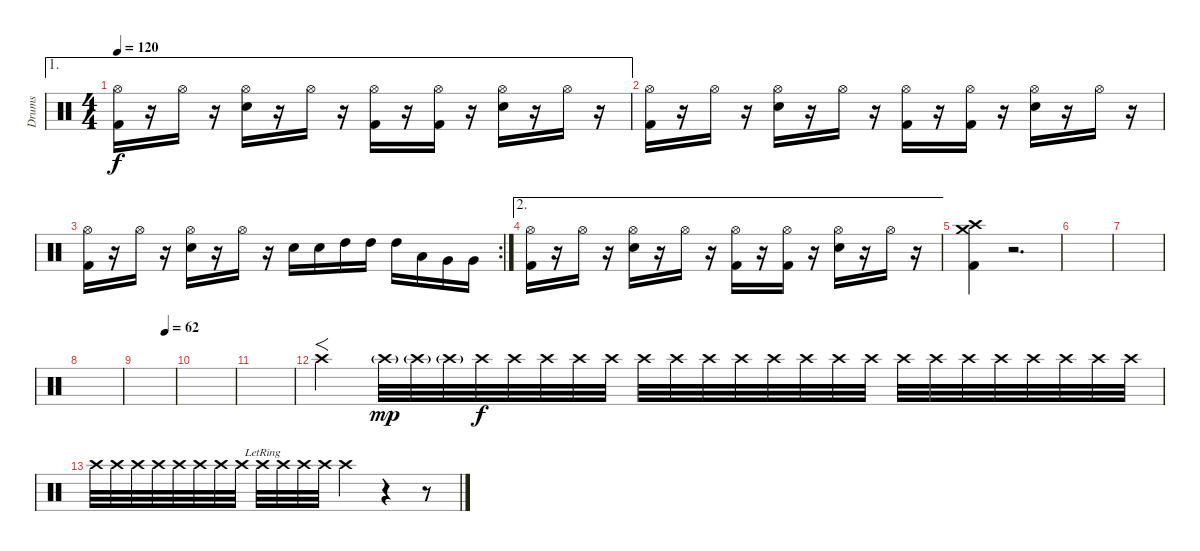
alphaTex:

\track ("Drums" "Drums") {instrument percussion}
\staff {score}
\articulation defaults
\ae 1
\ts (4 4)
\tempo 120
\clef neutral
\ks c
("Kick (hit) 2" "Hi-Hat (open)").16{dy f} r.16 "Hi-Hat (open)".16 r.16 ("Electric Snare (hit)" "Hi-Hat (open)").16 r.16 "Hi-Hat (open)".16 r.16 ("Kick (hit) 2" "Hi-Hat (open)").16 r.16 ("Kick (hit) 2" "Hi-Hat (open)").16 r.16 ("Electric Snare (hit)" "Hi-Hat (open)").16 r.16 "Hi-Hat (open)".16 r.16 |
("Kick (hit) 2" "Hi-Hat (open)").16 r.16 "Hi-Hat (open)".16 r.16 ("Electric Snare (hit)" "Hi-Hat (open)").16 r.16 "Hi-Hat (open)".16 r.16 ("Kick (hit) 2" "Hi-Hat (open)").16 r.16 ("Kick (hit) 2" "Hi-Hat (open)").16 r.16 ("Electric Snare (hit)" "Hi-Hat (open)").16 r.16 "Hi-Hat (open)".16 r.16 |
\rc 2
("Kick (hit) 2" "Hi-Hat (open)").16 r.16 "Hi-Hat (open)".16 r.16 ("Electric Snare (hit)" "Hi-Hat (open)").16 r.16 "Hi-Hat (open)".16 r.16 "Electric Snare (hit)".16 "Electric Snare (hit)".16 "High Tom (hit)".16 "High Tom (hit)".16 "High Tom (hit)".16 "Low Tom (hit)".16 "Very Low Tom (hit)".16 "Very Low Tom (hit)".16 |
\ae 2
("Kick (hit) 2" "Hi-Hat (open)").16 r.16 "Hi-Hat (open)".16 r.16 ("Electric Snare (hit)" "Hi-Hat (open)").16 r.16 "Hi-Hat (open)".16 r.16 ("Kick (hit) 2" "Hi-Hat (open)").16 r.16 ("Kick (hit) 2" "Hi-Hat (open)").16 r.16 ("Electric Snare (hit)" "Hi-Hat (open)").16 r.16 "Hi-Hat (open)".16 r.16 |
("Kick (hit) 2" "Crash medium (hit)" "Crash high (hit)").4 r.2{d} |
|
|
|
\tempo (62 0.75)
|
|
|
"Crash high (hit)".4{f} "Crash high (hit)"{g}.32{dy mp} "Crash high (hit)"{g}.32 "Crash high (hit)"{g}.32 "Crash high (hit)".32{dy f} "Crash high (hit)".32 "Crash high (hit)".32 "Crash high (hit)".32 "Crash high (hit)".32 "Crash high (hit)".32 "Crash high (hit)".32 "Crash high (hit)".32 "Crash high (hit)".32 "Crash high (hit)".32 "Crash high (hit)".32 "Crash high (hit)".32 "Crash high (hit)".32 "Crash high (hit)".32 "Crash high (hit)".32 "Crash high (hit)".32 "Crash high (hit)".32 "Crash high (hit)".32 "Crash high (hit)".32 "Crash high (hit)".32 "Crash high (hit)".32 |
"Crash high (hit)".32 "Crash high (hit)".32 "Crash high (hit)".32 "Crash high (hit)".32 "Crash high (hit)".32 "Crash high (hit)".32 "Crash high (hit)".32 "Crash high (hit)".32 "Crash high (hit)"{lr}.32 "Crash high (hit)".32 "Crash high (hit)".32 "Crash high (hit)".32 "Crash high (hit)".4 r.4 r.8
